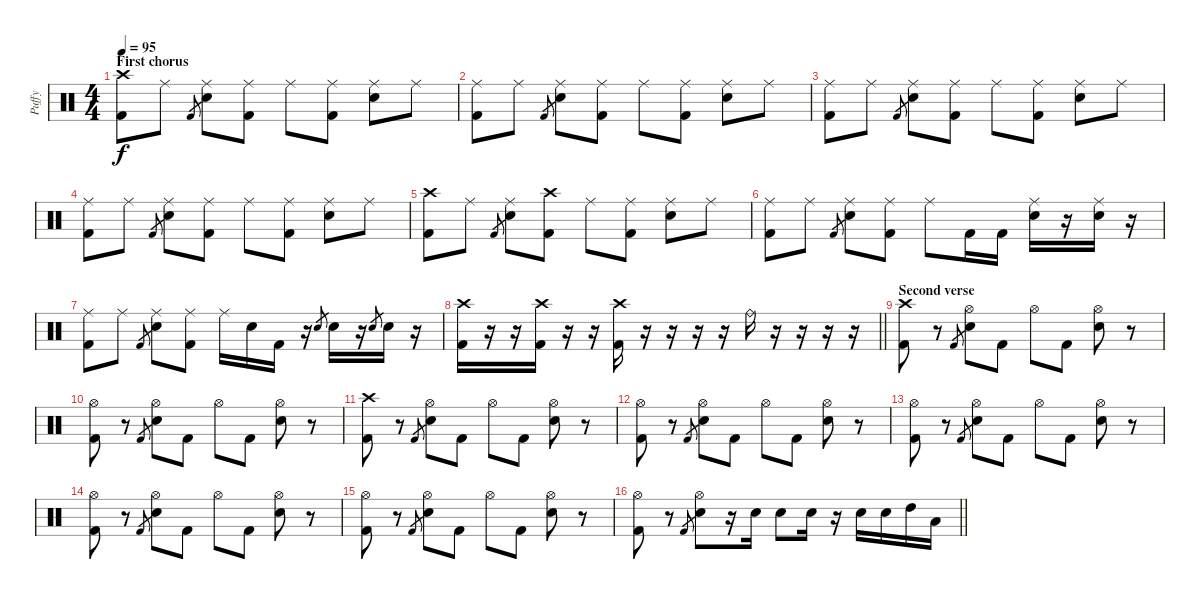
\track ("Puffy" "Puffy") {instrument percussion}
\staff {score}
\articulation defaults
\ts (4 4)
\section ("" "First chorus")
\tempo 95
\clef neutral
\ks c
("Crash high (hit)" "Kick (hit) 2").8{dy f} "Ride (middle)".8 "Kick (hit) 2".8{gr} ("Ride (middle)" "Snare (hit) 2").8 ("Ride (middle)" "Kick (hit) 2").8 "Ride (middle)".8 ("Ride (middle)" "Kick (hit) 2").8 ("Ride (middle)" "Snare (hit) 2").8 "Ride (middle)".8 |
("Ride (middle)" "Kick (hit) 2").8 "Ride (middle)".8 "Kick (hit) 2".8{gr} ("Ride (middle)" "Snare (hit) 2").8 ("Ride (middle)" "Kick (hit) 2").8 "Ride (middle)".8 ("Ride (middle)" "Kick (hit) 2").8 ("Ride (middle)" "Snare (hit) 2").8 "Ride (middle)".8 |
("Ride (middle)" "Kick (hit) 2").8 "Ride (middle)".8 "Kick (hit) 2".8{gr} ("Ride (middle)" "Snare (hit) 2").8 ("Ride (middle)" "Kick (hit) 2").8 "Ride (middle)".8 ("Ride (middle)" "Kick (hit) 2").8 ("Ride (middle)" "Snare (hit) 2").8 "Ride (middle)".8 |
("Ride (middle)" "Kick (hit) 2").8 "Ride (middle)".8 "Kick (hit) 2".8{gr} ("Ride (middle)" "Snare (hit) 2").8 ("Ride (middle)" "Kick (hit) 2").8 "Ride (middle)".8 ("Ride (middle)" "Kick (hit) 2").8 ("Ride (middle)" "Snare (hit) 2").8 "Ride (middle)".8 |
("Crash high (hit)" "Kick (hit) 2").8 "Ride (middle)".8 "Kick (hit) 2".8{gr} ("Ride (middle)" "Snare (hit) 2").8 ("Crash high (hit)" "Kick (hit) 2").8 "Ride (middle)".8 ("Ride (middle)" "Kick (hit) 2").8 ("Ride (middle)" "Snare (hit) 2").8 "Ride (middle)".8 |
("Ride (middle)" "Kick (hit) 2").8 "Ride (middle)".8 "Kick (hit) 2".8{gr} ("Ride (middle)" "Snare (hit) 2").8 ("Ride (middle)" "Kick (hit) 2").8 "Ride (middle)".8 "Kick (hit) 2".16 "Kick (hit) 2".16 ("Ride (middle)" "Snare (hit) 2").16 r.16 ("Ride (middle)" "Snare (hit) 2").16 r.16 |
("Ride (middle)" "Kick (hit) 2").8 "Ride (middle)".8 "Kick (hit) 2".8{gr} ("Ride (middle)" "Snare (hit) 2").8 ("Ride (middle)" "Kick (hit) 2").8 "Ride (middle)".16 "Snare (hit) 2".16 "Kick (hit) 2".16 r.16 "Snare (hit) 2".8{gr} "Snare (hit) 2".16 r.16 "Snare (hit) 2".8{gr} "Snare (hit) 2".16 r.16 |
\barLineRight lightlight
("Crash high (hit)" "Kick (hit) 2").16 r.16 r.16 ("Crash high (hit)" "Kick (hit) 2").16 r.16 r.16 ("Crash high (hit)" "Kick (hit) 2").16 r.16 r.16 r.16 r.16 "Ride (bell)".16 r.16 r.16 r.16 r.16 |
\section ("" "Second verse")
("Crash high (hit)" "Kick (hit) 2").8 r.8 "Kick (hit) 2".8{gr} ("Hi-Hat (open)" "Snare (hit) 2").8 "Kick (hit) 2".8 "Hi-Hat (open)".8 "Kick (hit) 2".8 ("Hi-Hat (open)" "Snare (hit) 2").8 r.8 |
("Hi-Hat (open)" "Kick (hit) 2").8 r.8 "Kick (hit) 2".8{gr} ("Hi-Hat (open)" "Snare (hit) 2").8 "Kick (hit) 2".8 "Hi-Hat (open)".8 "Kick (hit) 2".8 ("Hi-Hat (open)" "Snare (hit) 2").8 r.8 |
("Crash high (hit)" "Kick (hit) 2").8 r.8 "Kick (hit) 2".8{gr} ("Hi-Hat (open)" "Snare (hit) 2").8 "Kick (hit) 2".8 "Hi-Hat (open)".8 "Kick (hit) 2".8 ("Hi-Hat (open)" "Snare (hit) 2").8 r.8 |
("Hi-Hat (open)" "Kick (hit) 2").8 r.8 "Kick (hit) 2".8{gr} ("Hi-Hat (open)" "Snare (hit) 2").8 "Kick (hit) 2".8 "Hi-Hat (open)".8 "Kick (hit) 2".8 ("Hi-Hat (open)" "Snare (hit) 2").8 r.8 |
("Hi-Hat (open)" "Kick (hit) 2").8 r.8 "Kick (hit) 2".8{gr} ("Hi-Hat (open)" "Snare (hit) 2").8 "Kick (hit) 2".8 "Hi-Hat (open)".8 "Kick (hit) 2".8 ("Hi-Hat (open)" "Snare (hit) 2").8 r.8 |
("Hi-Hat (open)" "Kick (hit) 2").8 r.8 "Kick (hit) 2".8{gr} ("Hi-Hat (open)" "Snare (hit) 2").8 "Kick (hit) 2".8 "Hi-Hat (open)".8 "Kick (hit) 2".8 ("Hi-Hat (open)" "Snare (hit) 2").8 r.8 |
("Hi-Hat (open)" "Kick (hit) 2").8 r.8 "Kick (hit) 2".8{gr} ("Hi-Hat (open)" "Snare (hit) 2").8 "Kick (hit) 2".8 "Hi-Hat (open)".8 "Kick (hit) 2".8 ("Hi-Hat (open)" "Snare (hit) 2").8 r.8 |
\barLineRight lightlight
("Hi-Hat (open)" "Kick (hit) 2").8 r.8 "Kick (hit) 2".8{gr} ("Hi-Hat (open)" "Snare (hit) 2").8 r.16 "Snare (hit) 2".16 "Snare (hit) 2".8 "Snare (hit) 2".16 r.16 "Snare (hit) 2".16 "Snare (hit) 2".16 "High Tom (hit)".16 "Low Tom (hit)".16
